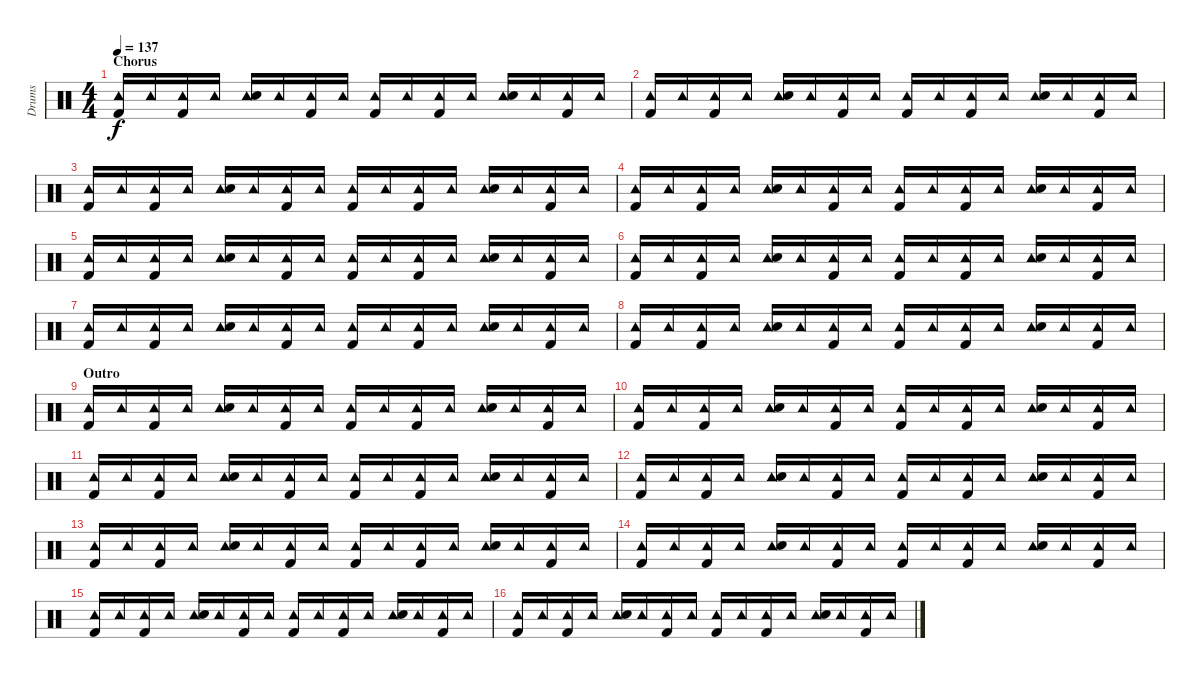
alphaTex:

\track ("Drums" "Drums") {instrument percussion}
\staff {score}
\articulation defaults
\ts (4 4)
\section ("" "Chorus")
\tempo 137
\clef neutral
\ks c
("Tambourine (hit)" "Kick (hit) 2").16{dy f} "Tambourine (hit)".16 ("Tambourine (hit)" "Kick (hit) 2").16 "Tambourine (hit)".16 ("Tambourine (hit)" "Electric Snare (hit)").16 "Tambourine (hit)".16 ("Tambourine (hit)" "Kick (hit) 2").16 "Tambourine (hit)".16 ("Tambourine (hit)" "Kick (hit) 2").16 "Tambourine (hit)".16 ("Tambourine (hit)" "Kick (hit) 2").16 "Tambourine (hit)".16 ("Tambourine (hit)" "Electric Snare (hit)").16 "Tambourine (hit)".16 ("Tambourine (hit)" "Kick (hit) 2").16 "Tambourine (hit)".16 |
("Tambourine (hit)" "Kick (hit) 2").16 "Tambourine (hit)".16 ("Tambourine (hit)" "Kick (hit) 2").16 "Tambourine (hit)".16 ("Tambourine (hit)" "Electric Snare (hit)").16 "Tambourine (hit)".16 ("Tambourine (hit)" "Kick (hit) 2").16 "Tambourine (hit)".16 ("Tambourine (hit)" "Kick (hit) 2").16 "Tambourine (hit)".16 ("Tambourine (hit)" "Kick (hit) 2").16 "Tambourine (hit)".16 ("Tambourine (hit)" "Electric Snare (hit)").16 "Tambourine (hit)".16 ("Tambourine (hit)" "Kick (hit) 2").16 "Tambourine (hit)".16 |
("Tambourine (hit)" "Kick (hit) 2").16 "Tambourine (hit)".16 ("Tambourine (hit)" "Kick (hit) 2").16 "Tambourine (hit)".16 ("Tambourine (hit)" "Electric Snare (hit)").16 "Tambourine (hit)".16 ("Tambourine (hit)" "Kick (hit) 2").16 "Tambourine (hit)".16 ("Tambourine (hit)" "Kick (hit) 2").16 "Tambourine (hit)".16 ("Tambourine (hit)" "Kick (hit) 2").16 "Tambourine (hit)".16 ("Tambourine (hit)" "Electric Snare (hit)").16 "Tambourine (hit)".16 ("Tambourine (hit)" "Kick (hit) 2").16 "Tambourine (hit)".16 |
("Tambourine (hit)" "Kick (hit) 2").16 "Tambourine (hit)".16 ("Tambourine (hit)" "Kick (hit) 2").16 "Tambourine (hit)".16 ("Tambourine (hit)" "Electric Snare (hit)").16 "Tambourine (hit)".16 ("Tambourine (hit)" "Kick (hit) 2").16 "Tambourine (hit)".16 ("Tambourine (hit)" "Kick (hit) 2").16 "Tambourine (hit)".16 ("Tambourine (hit)" "Kick (hit) 2").16 "Tambourine (hit)".16 ("Tambourine (hit)" "Electric Snare (hit)").16 "Tambourine (hit)".16 ("Tambourine (hit)" "Kick (hit) 2").16 "Tambourine (hit)".16 |
("Tambourine (hit)" "Kick (hit) 2").16 "Tambourine (hit)".16 ("Tambourine (hit)" "Kick (hit) 2").16 "Tambourine (hit)".16 ("Tambourine (hit)" "Electric Snare (hit)").16 "Tambourine (hit)".16 ("Tambourine (hit)" "Kick (hit) 2").16 "Tambourine (hit)".16 ("Tambourine (hit)" "Kick (hit) 2").16 "Tambourine (hit)".16 ("Tambourine (hit)" "Kick (hit) 2").16 "Tambourine (hit)".16 ("Tambourine (hit)" "Electric Snare (hit)").16 "Tambourine (hit)".16 ("Tambourine (hit)" "Kick (hit) 2").16 "Tambourine (hit)".16 |
("Tambourine (hit)" "Kick (hit) 2").16 "Tambourine (hit)".16 ("Tambourine (hit)" "Kick (hit) 2").16 "Tambourine (hit)".16 ("Tambourine (hit)" "Electric Snare (hit)").16 "Tambourine (hit)".16 ("Tambourine (hit)" "Kick (hit) 2").16 "Tambourine (hit)".16 ("Tambourine (hit)" "Kick (hit) 2").16 "Tambourine (hit)".16 ("Tambourine (hit)" "Kick (hit) 2").16 "Tambourine (hit)".16 ("Tambourine (hit)" "Electric Snare (hit)").16 "Tambourine (hit)".16 ("Tambourine (hit)" "Kick (hit) 2").16 "Tambourine (hit)".16 |
("Tambourine (hit)" "Kick (hit) 2").16 "Tambourine (hit)".16 ("Tambourine (hit)" "Kick (hit) 2").16 "Tambourine (hit)".16 ("Tambourine (hit)" "Electric Snare (hit)").16 "Tambourine (hit)".16 ("Tambourine (hit)" "Kick (hit) 2").16 "Tambourine (hit)".16 ("Tambourine (hit)" "Kick (hit) 2").16 "Tambourine (hit)".16 ("Tambourine (hit)" "Kick (hit) 2").16 "Tambourine (hit)".16 ("Tambourine (hit)" "Electric Snare (hit)").16 "Tambourine (hit)".16 ("Tambourine (hit)" "Kick (hit) 2").16 "Tambourine (hit)".16 |
("Tambourine (hit)" "Kick (hit) 2").16 "Tambourine (hit)".16 ("Tambourine (hit)" "Kick (hit) 2").16 "Tambourine (hit)".16 ("Tambourine (hit)" "Electric Snare (hit)").16 "Tambourine (hit)".16 ("Tambourine (hit)" "Kick (hit) 2").16 "Tambourine (hit)".16 ("Tambourine (hit)" "Kick (hit) 2").16 "Tambourine (hit)".16 ("Tambourine (hit)" "Kick (hit) 2").16 "Tambourine (hit)".16 ("Tambourine (hit)" "Electric Snare (hit)").16 "Tambourine (hit)".16 ("Tambourine (hit)" "Kick (hit) 2").16 "Tambourine (hit)".16 |
\section ("" "Outro")
("Tambourine (hit)" "Kick (hit) 2").16 "Tambourine (hit)".16 ("Tambourine (hit)" "Kick (hit) 2").16 "Tambourine (hit)".16 ("Tambourine (hit)" "Electric Snare (hit)").16 "Tambourine (hit)".16 ("Tambourine (hit)" "Kick (hit) 2").16 "Tambourine (hit)".16 ("Tambourine (hit)" "Kick (hit) 2").16 "Tambourine (hit)".16 ("Tambourine (hit)" "Kick (hit) 2").16 "Tambourine (hit)".16 ("Tambourine (hit)" "Electric Snare (hit)").16 "Tambourine (hit)".16 ("Tambourine (hit)" "Kick (hit) 2").16 "Tambourine (hit)".16 |
("Tambourine (hit)" "Kick (hit) 2").16 "Tambourine (hit)".16 ("Tambourine (hit)" "Kick (hit) 2").16 "Tambourine (hit)".16 ("Tambourine (hit)" "Electric Snare (hit)").16 "Tambourine (hit)".16 ("Tambourine (hit)" "Kick (hit) 2").16 "Tambourine (hit)".16 ("Tambourine (hit)" "Kick (hit) 2").16 "Tambourine (hit)".16 ("Tambourine (hit)" "Kick (hit) 2").16 "Tambourine (hit)".16 ("Tambourine (hit)" "Electric Snare (hit)").16 "Tambourine (hit)".16 ("Tambourine (hit)" "Kick (hit) 2").16 "Tambourine (hit)".16 |
("Tambourine (hit)" "Kick (hit) 2").16 "Tambourine (hit)".16 ("Tambourine (hit)" "Kick (hit) 2").16 "Tambourine (hit)".16 ("Tambourine (hit)" "Electric Snare (hit)").16 "Tambourine (hit)".16 ("Tambourine (hit)" "Kick (hit) 2").16 "Tambourine (hit)".16 ("Tambourine (hit)" "Kick (hit) 2").16 "Tambourine (hit)".16 ("Tambourine (hit)" "Kick (hit) 2").16 "Tambourine (hit)".16 ("Tambourine (hit)" "Electric Snare (hit)").16 "Tambourine (hit)".16 ("Tambourine (hit)" "Kick (hit) 2").16 "Tambourine (hit)".16 |
("Tambourine (hit)" "Kick (hit) 2").16 "Tambourine (hit)".16 ("Tambourine (hit)" "Kick (hit) 2").16 "Tambourine (hit)".16 ("Tambourine (hit)" "Electric Snare (hit)").16 "Tambourine (hit)".16 ("Tambourine (hit)" "Kick (hit) 2").16 "Tambourine (hit)".16 ("Tambourine (hit)" "Kick (hit) 2").16 "Tambourine (hit)".16 ("Tambourine (hit)" "Kick (hit) 2").16 "Tambourine (hit)".16 ("Tambourine (hit)" "Electric Snare (hit)").16 "Tambourine (hit)".16 ("Tambourine (hit)" "Kick (hit) 2").16 "Tambourine (hit)".16 |
("Tambourine (hit)" "Kick (hit) 2").16 "Tambourine (hit)".16 ("Tambourine (hit)" "Kick (hit) 2").16 "Tambourine (hit)".16 ("Tambourine (hit)" "Electric Snare (hit)").16 "Tambourine (hit)".16 ("Tambourine (hit)" "Kick (hit) 2").16 "Tambourine (hit)".16 ("Tambourine (hit)" "Kick (hit) 2").16 "Tambourine (hit)".16 ("Tambourine (hit)" "Kick (hit) 2").16 "Tambourine (hit)".16 ("Tambourine (hit)" "Electric Snare (hit)").16 "Tambourine (hit)".16 ("Tambourine (hit)" "Kick (hit) 2").16 "Tambourine (hit)".16 |
("Tambourine (hit)" "Kick (hit) 2").16 "Tambourine (hit)".16 ("Tambourine (hit)" "Kick (hit) 2").16 "Tambourine (hit)".16 ("Tambourine (hit)" "Electric Snare (hit)").16 "Tambourine (hit)".16 ("Tambourine (hit)" "Kick (hit) 2").16 "Tambourine (hit)".16 ("Tambourine (hit)" "Kick (hit) 2").16 "Tambourine (hit)".16 ("Tambourine (hit)" "Kick (hit) 2").16 "Tambourine (hit)".16 ("Tambourine (hit)" "Electric Snare (hit)").16 "Tambourine (hit)".16 ("Tambourine (hit)" "Kick (hit) 2").16 "Tambourine (hit)".16 |
("Tambourine (hit)" "Kick (hit) 2").16 "Tambourine (hit)".16 ("Tambourine (hit)" "Kick (hit) 2").16 "Tambourine (hit)".16 ("Tambourine (hit)" "Electric Snare (hit)").16 "Tambourine (hit)".16 ("Tambourine (hit)" "Kick (hit) 2").16 "Tambourine (hit)".16 ("Tambourine (hit)" "Kick (hit) 2").16 "Tambourine (hit)".16 ("Tambourine (hit)" "Kick (hit) 2").16 "Tambourine (hit)".16 ("Tambourine (hit)" "Electric Snare (hit)").16 "Tambourine (hit)".16 ("Tambourine (hit)" "Kick (hit) 2").16 "Tambourine (hit)".16 |
("Tambourine (hit)" "Kick (hit) 2").16 "Tambourine (hit)".16 ("Tambourine (hit)" "Kick (hit) 2").16 "Tambourine (hit)".16 ("Tambourine (hit)" "Electric Snare (hit)").16 "Tambourine (hit)".16 ("Tambourine (hit)" "Kick (hit) 2").16 "Tambourine (hit)".16 ("Tambourine (hit)" "Kick (hit) 2").16 "Tambourine (hit)".16 ("Tambourine (hit)" "Kick (hit) 2").16 "Tambourine (hit)".16 ("Tambourine (hit)" "Electric Snare (hit)").16 "Tambourine (hit)".16 ("Tambourine (hit)" "Kick (hit) 2").16 "Tambourine (hit)".16
